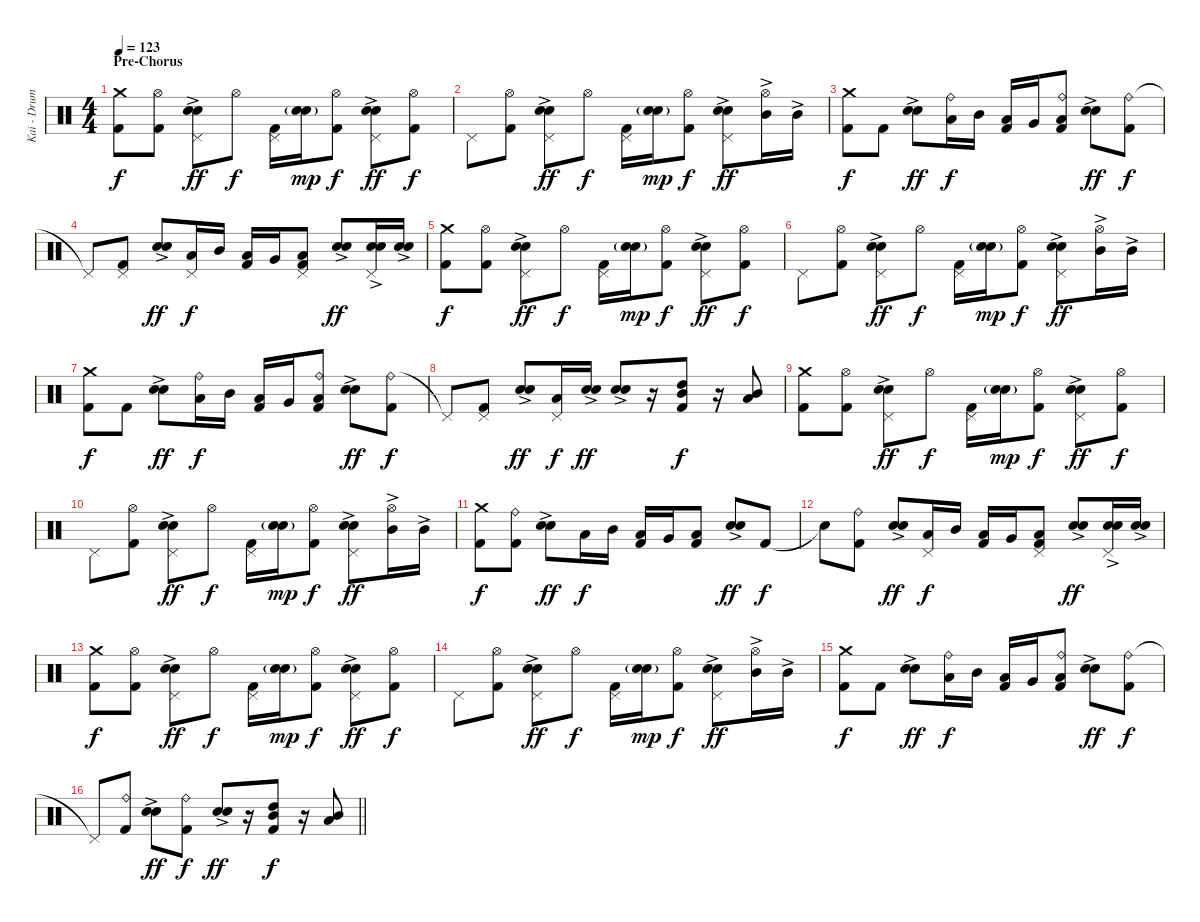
\track ("Kai - Drums" "Kai - Drum") {instrument percussion}
\staff {score}
\articulation defaults
\ts (4 4)
\section ("" "Pre-Chorus")
\tempo 123
\clef neutral
\ks c
("Crash medium (hit)" "Kick (hit) 2").8{dy f} ("Hi-Hat (open)" "Kick (hit) 2").8 ("Pedal Hi-Hat (hit)" "Electric Snare (hit)"{ac} "Snare (hit) 2").8{dy ff} "Hi-Hat (open)".8{dy f} ("Pedal Hi-Hat (hit)" "Kick (hit) 2").16 ("Electric Snare (hit)"{g} "Snare (hit) 2"{g}).16{dy mp} ("Hi-Hat (open)" "Kick (hit) 2").8{dy f} ("Pedal Hi-Hat (hit)" "Electric Snare (hit)"{ac} "Snare (hit) 2").8{dy ff} ("Hi-Hat (open)" "Kick (hit) 2").8{dy f} |
"Pedal Hi-Hat (hit)".8 ("Hi-Hat (open)" "Kick (hit) 2").8 ("Pedal Hi-Hat (hit)" "Electric Snare (hit)"{ac} "Snare (hit) 2").8{dy ff} "Hi-Hat (open)".8{dy f} ("Pedal Hi-Hat (hit)" "Kick (hit) 2").16 ("Electric Snare (hit)" "Snare (hit) 2"{g}).16{dy mp} ("Hi-Hat (open)" "Kick (hit) 2").8{dy f} ("Pedal Hi-Hat (hit)" "Electric Snare (hit)"{ac} "Snare (hit) 2").8{dy ff} ("Hi-Hat (open)" "Mid Tom (hit)"{ac}).16 "Mid Tom (hit)"{ac}.16 |
("Crash medium (hit)" "Kick (hit) 2").8{dy f} "Kick (hit) 2".8 ("Electric Snare (hit)"{ac} "Snare (hit) 2").8{dy ff} ("Ride (bell)" "Low Tom (hit)").16{dy f} "Mid Tom (hit)".16 ("Low Tom (hit)" "Kick (hit) 2").16 "Very Low Tom (hit)".16 ("Ride (bell)" "Low Floor Tom (hit)" "Kick (hit) 2").8 ("Electric Snare (hit)"{ac} "Snare (hit) 2").8{dy ff} ("Ride (bell)" "Kick (hit) 2").8{dy f} |
"Pedal Hi-Hat (hit)"{t}.8 ("Pedal Hi-Hat (hit)" "Kick (hit) 2").8 ("Electric Snare (hit)"{ac} "Snare (hit) 2").8{dy ff} ("Pedal Hi-Hat (hit)" "Low Tom (hit)").16{dy f} "Mid Tom (hit)".16 ("Low Tom (hit)" "Kick (hit) 2").16 "Very Low Tom (hit)".16 ("Pedal Hi-Hat (hit)" "Low Floor Tom (hit)" "Kick (hit) 2").8 ("Electric Snare (hit)"{ac} "Snare (hit) 2").8{dy ff} ("Pedal Hi-Hat (hit)" "Electric Snare (hit)"{ac} "Snare (hit) 2").16 ("Electric Snare (hit)"{ac} "Snare (hit) 2").16 |
("Crash medium (hit)" "Kick (hit) 2").8{dy f} ("Hi-Hat (open)" "Kick (hit) 2").8 ("Pedal Hi-Hat (hit)" "Electric Snare (hit)"{ac} "Snare (hit) 2").8{dy ff} "Hi-Hat (open)".8{dy f} ("Pedal Hi-Hat (hit)" "Kick (hit) 2").16 ("Electric Snare (hit)"{g} "Snare (hit) 2"{g}).16{dy mp} ("Hi-Hat (open)" "Kick (hit) 2").8{dy f} ("Pedal Hi-Hat (hit)" "Electric Snare (hit)"{ac} "Snare (hit) 2").8{dy ff} ("Hi-Hat (open)" "Kick (hit) 2").8{dy f} |
"Pedal Hi-Hat (hit)".8 ("Hi-Hat (open)" "Kick (hit) 2").8 ("Pedal Hi-Hat (hit)" "Electric Snare (hit)"{ac} "Snare (hit) 2").8{dy ff} "Hi-Hat (open)".8{dy f} ("Pedal Hi-Hat (hit)" "Kick (hit) 2").16 ("Electric Snare (hit)" "Snare (hit) 2"{g}).16{dy mp} ("Hi-Hat (open)" "Kick (hit) 2").8{dy f} ("Pedal Hi-Hat (hit)" "Electric Snare (hit)"{ac} "Snare (hit) 2").8{dy ff} ("Hi-Hat (open)" "Mid Tom (hit)"{ac}).16 "Mid Tom (hit)"{ac}.16 |
("Crash medium (hit)" "Kick (hit) 2").8{dy f} "Kick (hit) 2".8 ("Electric Snare (hit)"{ac} "Snare (hit) 2").8{dy ff} ("Ride (bell)" "Low Tom (hit)").16{dy f} "Mid Tom (hit)".16 ("Low Tom (hit)" "Kick (hit) 2").16 "Very Low Tom (hit)".16 ("Ride (bell)" "Low Floor Tom (hit)" "Kick (hit) 2").8 ("Electric Snare (hit)"{ac} "Snare (hit) 2").8{dy ff} ("Ride (bell)" "Kick (hit) 2").8{dy f} |
"Pedal Hi-Hat (hit)"{t}.8 ("Pedal Hi-Hat (hit)" "Kick (hit) 2").8 ("Electric Snare (hit)"{ac} "Snare (hit) 2").8{dy ff} ("Pedal Hi-Hat (hit)" "Low Tom (hit)").16{dy f} ("Electric Snare (hit)"{ac} "Snare (hit) 2").16{dy ff} ("Electric Snare (hit)"{ac} "Snare (hit) 2").8 r.16 ("High Tom (hit)" "Mid Tom (hit)" "Kick (hit) 2").8{dy f} r.16 ("Mid Tom (hit)" "Low Tom (hit)").8 |
("Crash medium (hit)" "Kick (hit) 2").8 ("Hi-Hat (open)" "Kick (hit) 2").8 ("Pedal Hi-Hat (hit)" "Electric Snare (hit)"{ac} "Snare (hit) 2").8{dy ff} "Hi-Hat (open)".8{dy f} ("Pedal Hi-Hat (hit)" "Kick (hit) 2").16 ("Electric Snare (hit)"{g} "Snare (hit) 2"{g}).16{dy mp} ("Hi-Hat (open)" "Kick (hit) 2").8{dy f} ("Pedal Hi-Hat (hit)" "Electric Snare (hit)"{ac} "Snare (hit) 2").8{dy ff} ("Hi-Hat (open)" "Kick (hit) 2").8{dy f} |
"Pedal Hi-Hat (hit)".8 ("Hi-Hat (open)" "Kick (hit) 2").8 ("Pedal Hi-Hat (hit)" "Electric Snare (hit)"{ac} "Snare (hit) 2").8{dy ff} "Hi-Hat (open)".8{dy f} ("Pedal Hi-Hat (hit)" "Kick (hit) 2").16 ("Electric Snare (hit)" "Snare (hit) 2"{g}).16{dy mp} ("Hi-Hat (open)" "Kick (hit) 2").8{dy f} ("Pedal Hi-Hat (hit)" "Electric Snare (hit)"{ac} "Snare (hit) 2").8{dy ff} ("Hi-Hat (open)" "Mid Tom (hit)"{ac}).16 "Mid Tom (hit)"{ac}.16 |
("Crash medium (hit)" "Kick (hit) 2").8{dy f} ("Ride (bell)" "Kick (hit) 2").8 ("Electric Snare (hit)"{ac} "Snare (hit) 2").8{dy ff} "Low Tom (hit)".16{dy f} "Mid Tom (hit)".16 ("Low Tom (hit)" "Kick (hit) 2").16 "Very Low Tom (hit)".16 ("Low Floor Tom (hit)" "Kick (hit) 2").8 ("Electric Snare (hit)"{ac} "Snare (hit) 2").8{dy ff} "Kick (hit) 2".8{dy f} |
"Snare (hit)"{t}.8 ("Ride (bell)" "Kick (hit) 2").8 ("Electric Snare (hit)"{ac} "Snare (hit) 2").8{dy ff} ("Pedal Hi-Hat (hit)" "Low Tom (hit)").16{dy f} "Mid Tom (hit)".16 ("Low Tom (hit)" "Kick (hit) 2").16 "Very Low Tom (hit)".16 ("Pedal Hi-Hat (hit)" "Low Floor Tom (hit)" "Kick (hit) 2").8 ("Electric Snare (hit)"{ac} "Snare (hit) 2").8{dy ff} ("Pedal Hi-Hat (hit)" "Electric Snare (hit)"{ac} "Snare (hit) 2").16 ("Electric Snare (hit)"{ac} "Snare (hit) 2").16 |
("Crash medium (hit)" "Kick (hit) 2").8{dy f} ("Hi-Hat (open)" "Kick (hit) 2").8 ("Pedal Hi-Hat (hit)" "Electric Snare (hit)"{ac} "Snare (hit) 2").8{dy ff} "Hi-Hat (open)".8{dy f} ("Pedal Hi-Hat (hit)" "Kick (hit) 2").16 ("Electric Snare (hit)"{g} "Snare (hit) 2"{g}).16{dy mp} ("Hi-Hat (open)" "Kick (hit) 2").8{dy f} ("Pedal Hi-Hat (hit)" "Electric Snare (hit)"{ac} "Snare (hit) 2").8{dy ff} ("Hi-Hat (open)" "Kick (hit) 2").8{dy f} |
"Pedal Hi-Hat (hit)".8 ("Hi-Hat (open)" "Kick (hit) 2").8 ("Pedal Hi-Hat (hit)" "Electric Snare (hit)"{ac} "Snare (hit) 2").8{dy ff} "Hi-Hat (open)".8{dy f} ("Pedal Hi-Hat (hit)" "Kick (hit) 2").16 ("Electric Snare (hit)" "Snare (hit) 2"{g}).16{dy mp} ("Hi-Hat (open)" "Kick (hit) 2").8{dy f} ("Pedal Hi-Hat (hit)" "Electric Snare (hit)"{ac} "Snare (hit) 2").8{dy ff} ("Hi-Hat (open)" "Mid Tom (hit)"{ac}).16 "Mid Tom (hit)"{ac}.16 |
("Crash medium (hit)" "Kick (hit) 2").8{dy f} "Kick (hit) 2".8 ("Electric Snare (hit)"{ac} "Snare (hit) 2").8{dy ff} ("Ride (bell)" "Low Tom (hit)").16{dy f} "Mid Tom (hit)".16 ("Low Tom (hit)" "Kick (hit) 2").16 "Very Low Tom (hit)".16 ("Ride (bell)" "Low Floor Tom (hit)" "Kick (hit) 2").8 ("Electric Snare (hit)"{ac} "Snare (hit) 2").8{dy ff} ("Ride (bell)" "Kick (hit) 2").8{dy f} |
\barLineRight lightlight "Pedal Hi-Hat (hit)"{t}.8
("Ride (bell)" "Kick (hit) 2").8 ("Electric Snare (hit)"{ac} "Snare (hit) 2").8{dy ff} ("Ride (bell)" "Kick (hit) 2").8{dy f} ("Electric Snare (hit)"{ac} "Snare (hit) 2").8{dy ff} r.16 ("High Tom (hit)" "Mid Tom (hit)" "Kick (hit) 2").8{dy f} r.16 ("Mid Tom (hit)" "Low Tom (hit)").8
